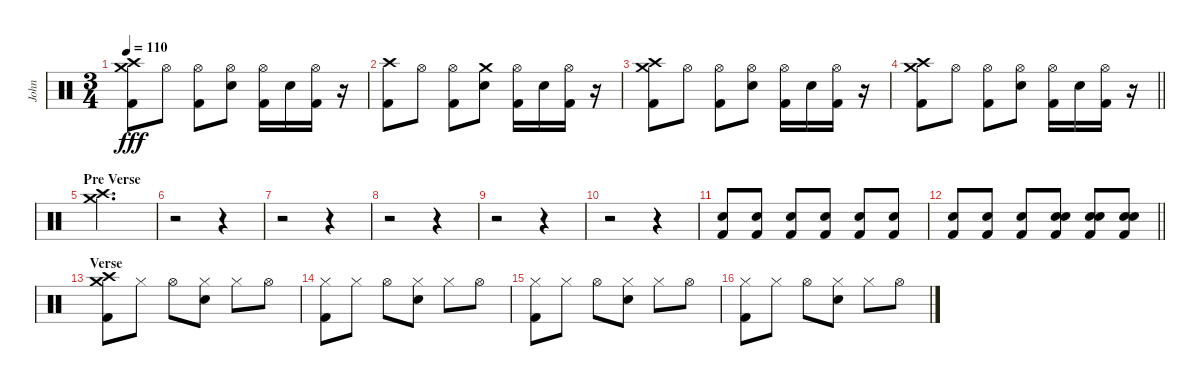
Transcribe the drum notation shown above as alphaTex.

\track ("John" "John") {instrument percussion}
\staff {score}
\articulation defaults
\ts (3 4)
\tempo 110
\clef neutral
\ks c
("Crash medium (hit)" "Crash high (hit)" "Kick (hit) 2").8{dy fff} "Hi-Hat (open)".8 ("Hi-Hat (open)" "Kick (hit) 2").8 ("Hi-Hat (open)" "Electric Snare (hit)").8 ("Hi-Hat (open)" "Kick (hit) 2").16 "Electric Snare (hit)".16 ("Hi-Hat (open)" "Kick (hit) 2").16 r.16 |
("Crash high (hit)" "Kick (hit) 2").8 "Hi-Hat (open)".8 ("Hi-Hat (open)" "Kick (hit) 2").8 ("Crash medium (hit)" "Electric Snare (hit)").8 ("Hi-Hat (open)" "Kick (hit) 2").16 "Electric Snare (hit)".16 ("Hi-Hat (open)" "Kick (hit) 2").16 r.16 |
("Crash medium (hit)" "Crash high (hit)" "Kick (hit) 2").8 "Hi-Hat (open)".8 ("Hi-Hat (open)" "Kick (hit) 2").8 ("Hi-Hat (open)" "Electric Snare (hit)").8 ("Hi-Hat (open)" "Kick (hit) 2").16 "Electric Snare (hit)".16 ("Hi-Hat (open)" "Kick (hit) 2").16 r.16 |
\barLineRight lightlight
("Crash medium (hit)" "Crash high (hit)" "Kick (hit) 2").8 "Hi-Hat (open)".8 ("Hi-Hat (open)" "Kick (hit) 2").8 ("Hi-Hat (open)" "Electric Snare (hit)").8 ("Hi-Hat (open)" "Kick (hit) 2").16 "Electric Snare (hit)".16 ("Hi-Hat (open)" "Kick (hit) 2").16 r.16 |
\section ("" "Pre Verse")
("Crash medium (hit)" "Crash high (hit)").2{d} |
r.2 r.4 |
r.2 r.4 |
r.2 r.4 |
r.2 r.4 |
r.2 r.4 |
("Electric Snare (hit)" "Kick (hit) 2").8 ("Electric Snare (hit)" "Kick (hit) 2").8 ("Electric Snare (hit)" "Kick (hit) 2").8 ("Electric Snare (hit)" "Kick (hit) 2").8 ("Electric Snare (hit)" "Kick (hit) 2").8 ("Electric Snare (hit)" "Kick (hit) 2").8 |
\barLineRight lightlight
("Electric Snare (hit)" "Kick (hit) 2").8 ("Electric Snare (hit)" "Kick (hit) 2").8 ("Electric Snare (hit)" "Kick (hit) 2").8 ("Electric Snare (hit)" "Electric Snare (hit)" "Kick (hit) 2").8 ("Electric Snare (hit)" "Electric Snare (hit)" "Kick (hit) 2").8 ("Electric Snare (hit)" "Electric Snare (hit)" "Kick (hit) 2").8 |
\section ("" "Verse")
("Crash medium (hit)" "Crash high (hit)" "Kick (hit) 2").8 "Hi-Hat (closed)".8 "Hi-Hat (open)".8 ("Hi-Hat (closed)" "Electric Snare (hit)").8 "Hi-Hat (closed)".8 "Hi-Hat (open)".8 |
("Hi-Hat (closed)" "Kick (hit) 2").8 "Hi-Hat (closed)".8 "Hi-Hat (open)".8 ("Hi-Hat (closed)" "Electric Snare (hit)").8 "Hi-Hat (closed)".8 "Hi-Hat (open)".8 |
("Hi-Hat (closed)" "Kick (hit) 2").8 "Hi-Hat (closed)".8 "Hi-Hat (open)".8 ("Hi-Hat (closed)" "Electric Snare (hit)").8 "Hi-Hat (closed)".8 "Hi-Hat (open)".8 |
("Hi-Hat (closed)" "Kick (hit) 2").8 "Hi-Hat (closed)".8 "Hi-Hat (open)".8 ("Hi-Hat (closed)" "Electric Snare (hit)").8 "Hi-Hat (closed)".8 "Hi-Hat (open)".8
